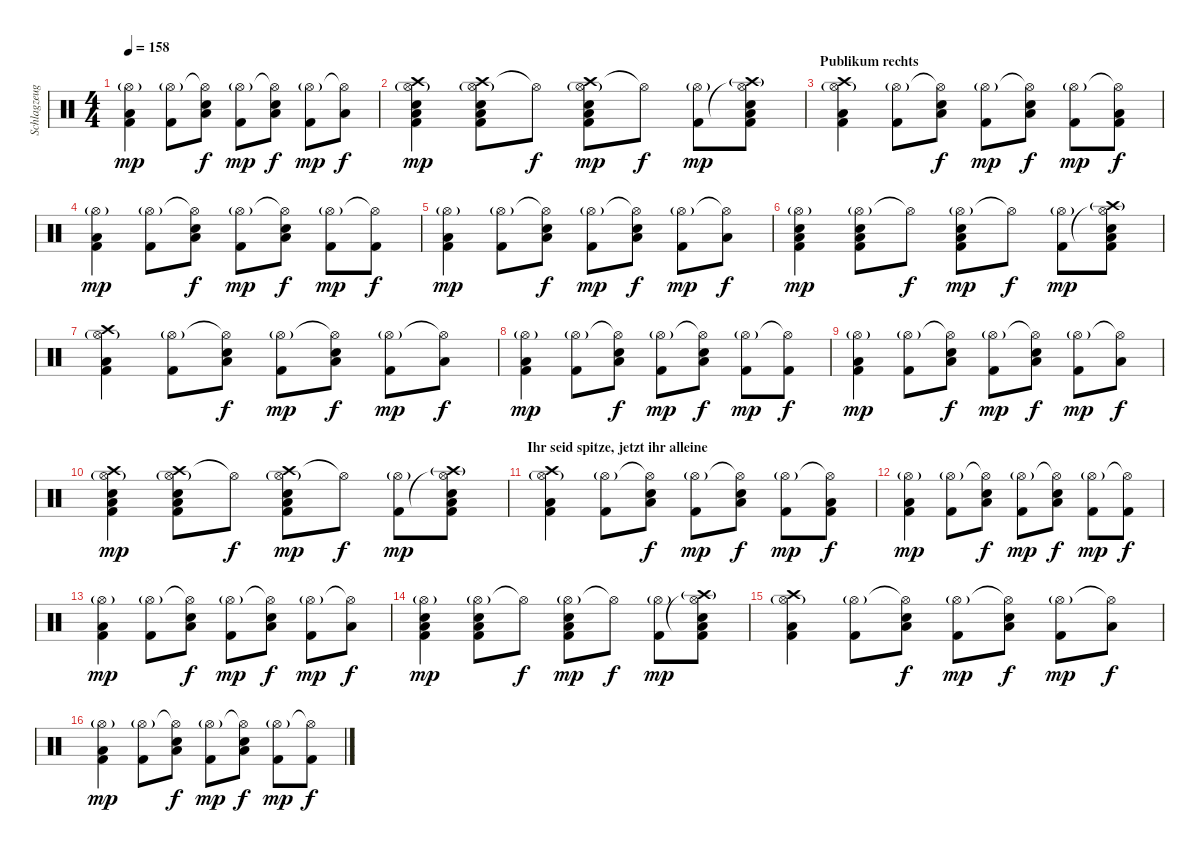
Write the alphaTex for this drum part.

\track ("Schlagzeug" "Schlagzeug") {instrument percussion}
\staff {score}
\articulation defaults
\ts (4 4)
\tempo 158
\clef neutral
\ks c
("Hi-Hat (open)"{g} "Low Floor Tom (hit)" "Kick (hit) 2").4{dy mp} ("Hi-Hat (open)"{g} "Kick (hit) 2").8 ("Hi-Hat (open)"{t} "Low Floor Tom (hit)" "Electric Snare (hit)").8{dy f} ("Hi-Hat (open)"{g} "Kick (hit) 2").8{dy mp} ("Hi-Hat (open)"{t} "Low Floor Tom (hit)" "Electric Snare (hit)").8{dy f} ("Hi-Hat (open)"{g} "Kick (hit) 2").8{dy mp} ("Hi-Hat (open)"{t} "Low Floor Tom (hit)").8{dy f} |
("Crash high (hit)" "Hi-Hat (open)"{g} "Low Floor Tom (hit)" "Electric Snare (hit)" "Kick (hit) 2").4{dy mp} ("Crash high (hit)" "Hi-Hat (open)"{g} "Low Floor Tom (hit)" "Electric Snare (hit)" "Kick (hit) 2").8 "Hi-Hat (open)"{t}.8{dy f} ("Crash high (hit)" "Hi-Hat (open)"{g} "Low Floor Tom (hit)" "Electric Snare (hit)" "Kick (hit) 2").8{dy mp} "Hi-Hat (open)"{t}.8{dy f} ("Hi-Hat (open)"{g} "Kick (hit) 2").8{dy mp} ("Crash high (hit)"{g} "Hi-Hat (open)"{t} "Low Floor Tom (hit)" "Electric Snare (hit)" "Kick (hit) 2").8 |
\section ("" "Publikum rechts")
("Crash high (hit)" "Hi-Hat (open)"{g} "Low Floor Tom (hit)" "Kick (hit) 2").4 ("Hi-Hat (open)"{g} "Kick (hit) 2").8 ("Hi-Hat (open)"{t} "Low Floor Tom (hit)" "Electric Snare (hit)").8{dy f} ("Hi-Hat (open)"{g} "Kick (hit) 2").8{dy mp} ("Hi-Hat (open)"{t} "Low Floor Tom (hit)" "Electric Snare (hit)").8{dy f} ("Hi-Hat (open)"{g} "Kick (hit) 2").8{dy mp} ("Hi-Hat (open)"{t} "Low Floor Tom (hit)" "Kick (hit) 2").8{dy f} |
("Hi-Hat (open)"{g} "Low Floor Tom (hit)" "Kick (hit) 2").4{dy mp} ("Hi-Hat (open)"{g} "Kick (hit) 2").8 ("Hi-Hat (open)"{t} "Low Floor Tom (hit)" "Electric Snare (hit)").8{dy f} ("Hi-Hat (open)"{g} "Kick (hit) 2").8{dy mp} ("Hi-Hat (open)"{t} "Low Floor Tom (hit)" "Electric Snare (hit)").8{dy f} ("Hi-Hat (open)"{g} "Kick (hit) 2").8{dy mp} ("Hi-Hat (open)"{t} "Kick (hit) 2").8{dy f} |
("Hi-Hat (open)"{g} "Low Floor Tom (hit)" "Kick (hit) 2").4{dy mp} ("Hi-Hat (open)"{g} "Kick (hit) 2").8 ("Hi-Hat (open)"{t} "Low Floor Tom (hit)" "Electric Snare (hit)").8{dy f} ("Hi-Hat (open)"{g} "Kick (hit) 2").8{dy mp} ("Hi-Hat (open)"{t} "Low Floor Tom (hit)" "Electric Snare (hit)").8{dy f} ("Hi-Hat (open)"{g} "Kick (hit) 2").8{dy mp} ("Hi-Hat (open)"{t} "Low Floor Tom (hit)").8{dy f} |
("Hi-Hat (open)"{g} "Low Floor Tom (hit)" "Electric Snare (hit)" "Kick (hit) 2").4{dy mp} ("Hi-Hat (open)"{g} "Low Floor Tom (hit)" "Electric Snare (hit)" "Kick (hit) 2").8 "Hi-Hat (open)"{t}.8{dy f} ("Hi-Hat (open)"{g} "Low Floor Tom (hit)" "Electric Snare (hit)" "Kick (hit) 2").8{dy mp} "Hi-Hat (open)"{t}.8{dy f} ("Hi-Hat (open)"{g} "Kick (hit) 2").8{dy mp} ("Crash high (hit)"{g} "Hi-Hat (open)"{t} "Low Floor Tom (hit)" "Electric Snare (hit)" "Kick (hit) 2").8 |
("Crash high (hit)" "Hi-Hat (open)"{g} "Low Floor Tom (hit)" "Kick (hit) 2").4 ("Hi-Hat (open)"{g} "Kick (hit) 2").8 ("Hi-Hat (open)"{t} "Low Floor Tom (hit)" "Electric Snare (hit)").8{dy f} ("Hi-Hat (open)"{g} "Kick (hit) 2").8{dy mp} ("Hi-Hat (open)"{t} "Low Floor Tom (hit)" "Electric Snare (hit)").8{dy f} ("Hi-Hat (open)"{g} "Kick (hit) 2").8{dy mp} ("Hi-Hat (open)"{t} "Low Floor Tom (hit)").8{dy f} |
("Hi-Hat (open)"{g} "Low Floor Tom (hit)" "Kick (hit) 2").4{dy mp} ("Hi-Hat (open)"{g} "Kick (hit) 2").8 ("Hi-Hat (open)"{t} "Low Floor Tom (hit)" "Electric Snare (hit)").8{dy f} ("Hi-Hat (open)"{g} "Kick (hit) 2").8{dy mp} ("Hi-Hat (open)"{t} "Low Floor Tom (hit)" "Electric Snare (hit)").8{dy f} ("Hi-Hat (open)"{g} "Kick (hit) 2").8{dy mp} ("Hi-Hat (open)"{t} "Kick (hit) 2").8{dy f} |
("Hi-Hat (open)"{g} "Low Floor Tom (hit)" "Kick (hit) 2").4{dy mp} ("Hi-Hat (open)"{g} "Kick (hit) 2").8 ("Hi-Hat (open)"{t} "Low Floor Tom (hit)" "Electric Snare (hit)").8{dy f} ("Hi-Hat (open)"{g} "Kick (hit) 2").8{dy mp} ("Hi-Hat (open)"{t} "Low Floor Tom (hit)" "Electric Snare (hit)").8{dy f} ("Hi-Hat (open)"{g} "Kick (hit) 2").8{dy mp} ("Hi-Hat (open)"{t} "Low Floor Tom (hit)").8{dy f} |
("Crash high (hit)" "Hi-Hat (open)"{g} "Low Floor Tom (hit)" "Electric Snare (hit)" "Kick (hit) 2").4{dy mp} ("Crash high (hit)" "Hi-Hat (open)"{g} "Low Floor Tom (hit)" "Electric Snare (hit)" "Kick (hit) 2").8 "Hi-Hat (open)"{t}.8{dy f} ("Crash high (hit)" "Hi-Hat (open)"{g} "Low Floor Tom (hit)" "Electric Snare (hit)" "Kick (hit) 2").8{dy mp} "Hi-Hat (open)"{t}.8{dy f} ("Hi-Hat (open)"{g} "Kick (hit) 2").8{dy mp} ("Crash high (hit)"{g} "Hi-Hat (open)"{t} "Low Floor Tom (hit)" "Electric Snare (hit)" "Kick (hit) 2").8 |
\section ("" "Ihr seid spitze, jetzt ihr alleine")
("Crash high (hit)" "Hi-Hat (open)"{g} "Low Floor Tom (hit)" "Kick (hit) 2").4 ("Hi-Hat (open)"{g} "Kick (hit) 2").8 ("Hi-Hat (open)"{t} "Low Floor Tom (hit)" "Electric Snare (hit)").8{dy f} ("Hi-Hat (open)"{g} "Kick (hit) 2").8{dy mp} ("Hi-Hat (open)"{t} "Low Floor Tom (hit)" "Electric Snare (hit)").8{dy f} ("Hi-Hat (open)"{g} "Kick (hit) 2").8{dy mp} ("Hi-Hat (open)"{t} "Low Floor Tom (hit)" "Kick (hit) 2").8{dy f} |
("Hi-Hat (open)"{g} "Low Floor Tom (hit)" "Kick (hit) 2").4{dy mp} ("Hi-Hat (open)"{g} "Kick (hit) 2").8 ("Hi-Hat (open)"{t} "Low Floor Tom (hit)" "Electric Snare (hit)").8{dy f} ("Hi-Hat (open)"{g} "Kick (hit) 2").8{dy mp} ("Hi-Hat (open)"{t} "Low Floor Tom (hit)" "Electric Snare (hit)").8{dy f} ("Hi-Hat (open)"{g} "Kick (hit) 2").8{dy mp} ("Hi-Hat (open)"{t} "Kick (hit) 2").8{dy f} |
("Hi-Hat (open)"{g} "Low Floor Tom (hit)" "Kick (hit) 2").4{dy mp} ("Hi-Hat (open)"{g} "Kick (hit) 2").8 ("Hi-Hat (open)"{t} "Low Floor Tom (hit)" "Electric Snare (hit)").8{dy f} ("Hi-Hat (open)"{g} "Kick (hit) 2").8{dy mp} ("Hi-Hat (open)"{t} "Low Floor Tom (hit)" "Electric Snare (hit)").8{dy f} ("Hi-Hat (open)"{g} "Kick (hit) 2").8{dy mp} ("Hi-Hat (open)"{t} "Low Floor Tom (hit)").8{dy f} |
("Hi-Hat (open)"{g} "Low Floor Tom (hit)" "Electric Snare (hit)" "Kick (hit) 2").4{dy mp} ("Hi-Hat (open)"{g} "Low Floor Tom (hit)" "Electric Snare (hit)" "Kick (hit) 2").8 "Hi-Hat (open)"{t}.8{dy f} ("Hi-Hat (open)"{g} "Low Floor Tom (hit)" "Electric Snare (hit)" "Kick (hit) 2").8{dy mp} "Hi-Hat (open)"{t}.8{dy f} ("Hi-Hat (open)"{g} "Kick (hit) 2").8{dy mp} ("Crash high (hit)"{g} "Hi-Hat (open)"{t} "Low Floor Tom (hit)" "Electric Snare (hit)" "Kick (hit) 2").8 |
("Crash high (hit)" "Hi-Hat (open)"{g} "Low Floor Tom (hit)" "Kick (hit) 2").4 ("Hi-Hat (open)"{g} "Kick (hit) 2").8 ("Hi-Hat (open)"{t} "Low Floor Tom (hit)" "Electric Snare (hit)").8{dy f} ("Hi-Hat (open)"{g} "Kick (hit) 2").8{dy mp} ("Hi-Hat (open)"{t} "Low Floor Tom (hit)" "Electric Snare (hit)").8{dy f} ("Hi-Hat (open)"{g} "Kick (hit) 2").8{dy mp} ("Hi-Hat (open)"{t} "Low Floor Tom (hit)").8{dy f} |
("Hi-Hat (open)"{g} "Low Floor Tom (hit)" "Kick (hit) 2").4{dy mp} ("Hi-Hat (open)"{g} "Kick (hit) 2").8 ("Hi-Hat (open)"{t} "Low Floor Tom (hit)" "Electric Snare (hit)").8{dy f} ("Hi-Hat (open)"{g} "Kick (hit) 2").8{dy mp} ("Hi-Hat (open)"{t} "Low Floor Tom (hit)" "Electric Snare (hit)").8{dy f} ("Hi-Hat (open)"{g} "Kick (hit) 2").8{dy mp} ("Hi-Hat (open)"{t} "Kick (hit) 2").8{dy f}
